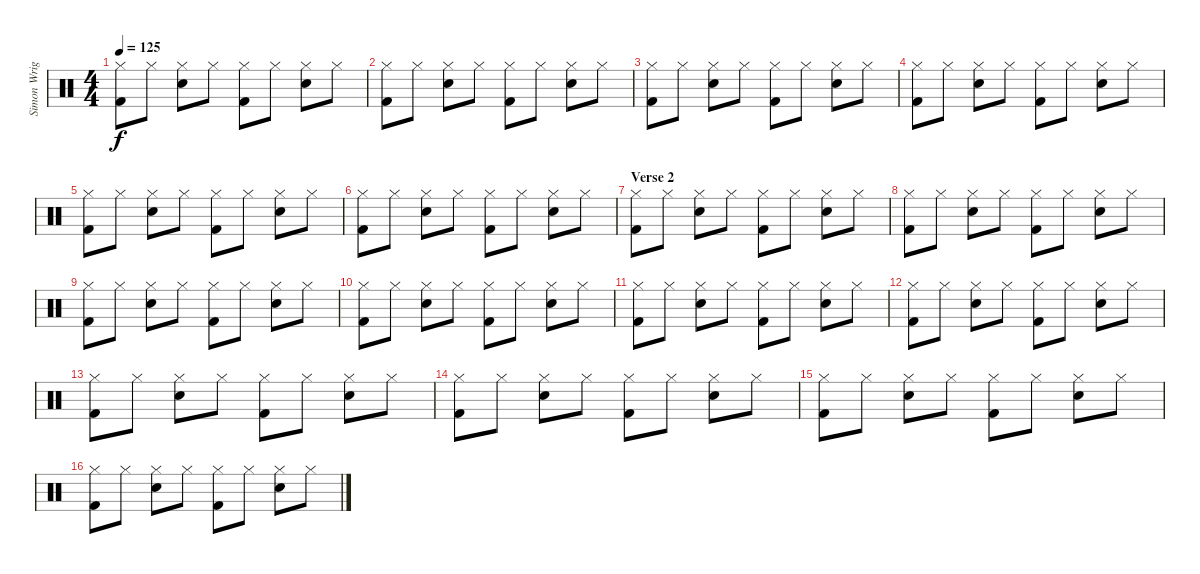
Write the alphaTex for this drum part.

\track ("Simon Wright" "Simon Wrig") {instrument percussion}
\staff {score}
\articulation defaults
\ts (4 4)
\tempo 125
\clef neutral
\ks c
("Kick (hit) 2" "Hi-Hat (closed)").8{dy f} "Hi-Hat (closed)".8 ("Snare (hit) 2" "Hi-Hat (closed)").8 "Hi-Hat (closed)".8 ("Kick (hit) 2" "Hi-Hat (closed)").8 "Hi-Hat (closed)".8 ("Snare (hit) 2" "Hi-Hat (closed)").8 "Hi-Hat (closed)".8 |
("Kick (hit) 2" "Hi-Hat (closed)").8 "Hi-Hat (closed)".8 ("Snare (hit) 2" "Hi-Hat (closed)").8 "Hi-Hat (closed)".8 ("Kick (hit) 2" "Hi-Hat (closed)").8 "Hi-Hat (closed)".8 ("Snare (hit) 2" "Hi-Hat (closed)").8 "Hi-Hat (closed)".8 |
("Kick (hit) 2" "Hi-Hat (closed)").8 "Hi-Hat (closed)".8 ("Snare (hit) 2" "Hi-Hat (closed)").8 "Hi-Hat (closed)".8 ("Kick (hit) 2" "Hi-Hat (closed)").8 "Hi-Hat (closed)".8 ("Snare (hit) 2" "Hi-Hat (closed)").8 "Hi-Hat (closed)".8 |
("Kick (hit) 2" "Hi-Hat (closed)").8 "Hi-Hat (closed)".8 ("Snare (hit) 2" "Hi-Hat (closed)").8 "Hi-Hat (closed)".8 ("Kick (hit) 2" "Hi-Hat (closed)").8 "Hi-Hat (closed)".8 ("Snare (hit) 2" "Hi-Hat (closed)").8 "Hi-Hat (closed)".8 |
("Kick (hit) 2" "Hi-Hat (closed)").8 "Hi-Hat (closed)".8 ("Snare (hit) 2" "Hi-Hat (closed)").8 "Hi-Hat (closed)".8 ("Kick (hit) 2" "Hi-Hat (closed)").8 "Hi-Hat (closed)".8 ("Snare (hit) 2" "Hi-Hat (closed)").8 "Hi-Hat (closed)".8 |
("Kick (hit) 2" "Hi-Hat (closed)").8 "Hi-Hat (closed)".8 ("Snare (hit) 2" "Hi-Hat (closed)").8 "Hi-Hat (closed)".8 ("Kick (hit) 2" "Hi-Hat (closed)").8 "Hi-Hat (closed)".8 ("Snare (hit) 2" "Hi-Hat (closed)").8 "Hi-Hat (closed)".8 |
\section ("" "Verse 2")
("Kick (hit) 2" "Hi-Hat (closed)").8 "Hi-Hat (closed)".8 ("Snare (hit) 2" "Hi-Hat (closed)").8 "Hi-Hat (closed)".8 ("Kick (hit) 2" "Hi-Hat (closed)").8 "Hi-Hat (closed)".8 ("Snare (hit) 2" "Hi-Hat (closed)").8 "Hi-Hat (closed)".8 |
("Kick (hit) 2" "Hi-Hat (closed)").8 "Hi-Hat (closed)".8 ("Snare (hit) 2" "Hi-Hat (closed)").8 "Hi-Hat (closed)".8 ("Kick (hit) 2" "Hi-Hat (closed)").8 "Hi-Hat (closed)".8 ("Snare (hit) 2" "Hi-Hat (closed)").8 "Hi-Hat (closed)".8 |
("Kick (hit) 2" "Hi-Hat (closed)").8 "Hi-Hat (closed)".8 ("Snare (hit) 2" "Hi-Hat (closed)").8 "Hi-Hat (closed)".8 ("Kick (hit) 2" "Hi-Hat (closed)").8 "Hi-Hat (closed)".8 ("Snare (hit) 2" "Hi-Hat (closed)").8 "Hi-Hat (closed)".8 |
("Kick (hit) 2" "Hi-Hat (closed)").8 "Hi-Hat (closed)".8 ("Snare (hit) 2" "Hi-Hat (closed)").8 "Hi-Hat (closed)".8 ("Kick (hit) 2" "Hi-Hat (closed)").8 "Hi-Hat (closed)".8 ("Snare (hit) 2" "Hi-Hat (closed)").8 "Hi-Hat (closed)".8 |
("Kick (hit) 2" "Hi-Hat (closed)").8 "Hi-Hat (closed)".8 ("Snare (hit) 2" "Hi-Hat (closed)").8 "Hi-Hat (closed)".8 ("Kick (hit) 2" "Hi-Hat (closed)").8 "Hi-Hat (closed)".8 ("Snare (hit) 2" "Hi-Hat (closed)").8 "Hi-Hat (closed)".8 |
("Kick (hit) 2" "Hi-Hat (closed)").8 "Hi-Hat (closed)".8 ("Snare (hit) 2" "Hi-Hat (closed)").8 "Hi-Hat (closed)".8 ("Kick (hit) 2" "Hi-Hat (closed)").8 "Hi-Hat (closed)".8 ("Snare (hit) 2" "Hi-Hat (closed)").8 "Hi-Hat (closed)".8 |
("Kick (hit) 2" "Hi-Hat (closed)").8 "Hi-Hat (closed)".8 ("Snare (hit) 2" "Hi-Hat (closed)").8 "Hi-Hat (closed)".8 ("Kick (hit) 2" "Hi-Hat (closed)").8 "Hi-Hat (closed)".8 ("Snare (hit) 2" "Hi-Hat (closed)").8 "Hi-Hat (closed)".8 |
("Kick (hit) 2" "Hi-Hat (closed)").8 "Hi-Hat (closed)".8 ("Snare (hit) 2" "Hi-Hat (closed)").8 "Hi-Hat (closed)".8 ("Kick (hit) 2" "Hi-Hat (closed)").8 "Hi-Hat (closed)".8 ("Snare (hit) 2" "Hi-Hat (closed)").8 "Hi-Hat (closed)".8 |
("Kick (hit) 2" "Hi-Hat (closed)").8 "Hi-Hat (closed)".8 ("Snare (hit) 2" "Hi-Hat (closed)").8 "Hi-Hat (closed)".8 ("Kick (hit) 2" "Hi-Hat (closed)").8 "Hi-Hat (closed)".8 ("Snare (hit) 2" "Hi-Hat (closed)").8 "Hi-Hat (closed)".8 |
("Kick (hit) 2" "Hi-Hat (closed)").8 "Hi-Hat (closed)".8 ("Snare (hit) 2" "Hi-Hat (closed)").8 "Hi-Hat (closed)".8 ("Kick (hit) 2" "Hi-Hat (closed)").8 "Hi-Hat (closed)".8 ("Snare (hit) 2" "Hi-Hat (closed)").8 "Hi-Hat (closed)".8
